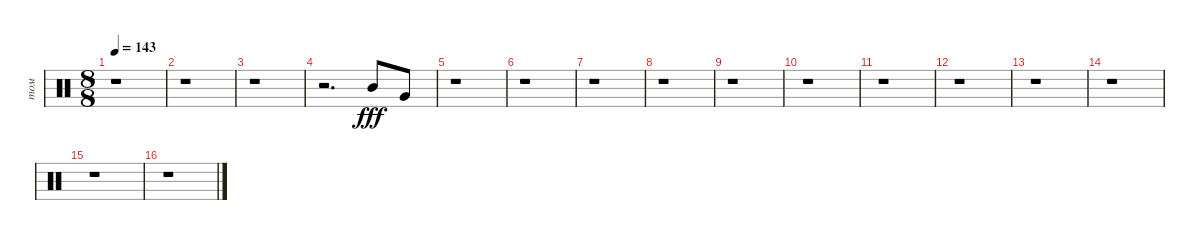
\track ("том" "том") {instrument percussion}
\staff {score}
\articulation defaults
\ts (8 8)
\tempo 143
\clef neutral
\ks c
r.1{dy fff} |
r.1 |
r.1 |
r.2{d} "Mid Tom (hit)".8 "Very Low Tom (hit)".8 |
r.1 |
r.1 |
r.1 |
r.1 |
r.1 |
r.1 |
r.1 |
r.1 |
r.1 |
r.1 |
r.1 |
r.1
